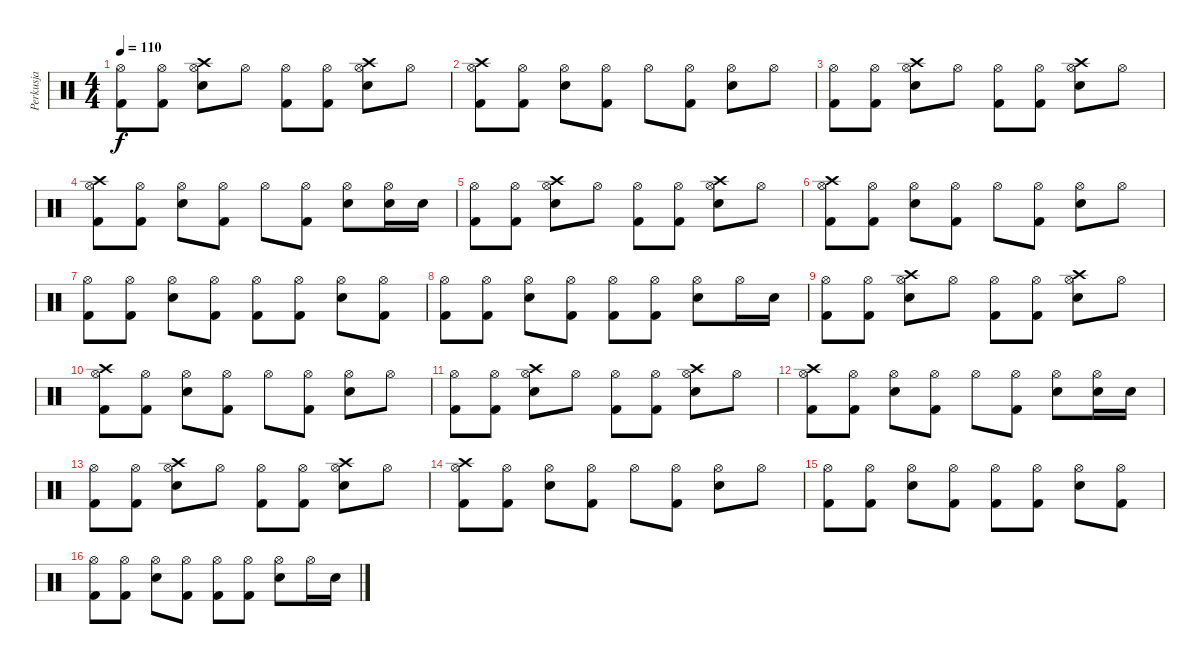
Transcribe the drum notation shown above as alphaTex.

\track ("Perkusja" "Perkusja") {instrument percussion}
\staff {score}
\articulation defaults
\ts (4 4)
\tempo 110
\clef neutral
\ks c
("Hi-Hat (open)" "Kick (hit) 2").8{dy f} ("Hi-Hat (open)" "Kick (hit) 2").8 ("Hi-Hat (open)" "Snare (hit) 2" "Crash high (hit)").8 "Hi-Hat (open)".8 ("Hi-Hat (open)" "Kick (hit) 2").8 ("Hi-Hat (open)" "Kick (hit) 2").8 ("Hi-Hat (open)" "Snare (hit) 2" "Crash high (hit)").8 "Hi-Hat (open)".8 |
("Hi-Hat (open)" "Kick (hit) 2" "Crash high (hit)").8 ("Hi-Hat (open)" "Kick (hit) 2").8 ("Hi-Hat (open)" "Snare (hit) 2").8 ("Hi-Hat (open)" "Kick (hit) 2").8 "Hi-Hat (open)".8 ("Hi-Hat (open)" "Kick (hit) 2").8 ("Hi-Hat (open)" "Snare (hit) 2").8 "Hi-Hat (open)".8 |
("Hi-Hat (open)" "Kick (hit) 2").8 ("Hi-Hat (open)" "Kick (hit) 2").8 ("Hi-Hat (open)" "Snare (hit) 2" "Crash high (hit)").8 "Hi-Hat (open)".8 ("Hi-Hat (open)" "Kick (hit) 2").8 ("Hi-Hat (open)" "Kick (hit) 2").8 ("Hi-Hat (open)" "Snare (hit) 2" "Crash high (hit)").8 "Hi-Hat (open)".8 |
("Hi-Hat (open)" "Kick (hit) 2" "Crash high (hit)").8 ("Hi-Hat (open)" "Kick (hit) 2").8 ("Hi-Hat (open)" "Snare (hit) 2").8 ("Hi-Hat (open)" "Kick (hit) 2").8 "Hi-Hat (open)".8 ("Hi-Hat (open)" "Kick (hit) 2").8 ("Hi-Hat (open)" "Snare (hit) 2").8 ("Hi-Hat (open)" "Snare (hit) 2").16 "Snare (hit) 2".16 |
("Hi-Hat (open)" "Kick (hit) 2").8 ("Hi-Hat (open)" "Kick (hit) 2").8 ("Hi-Hat (open)" "Snare (hit) 2" "Crash high (hit)").8 "Hi-Hat (open)".8 ("Hi-Hat (open)" "Kick (hit) 2").8 ("Hi-Hat (open)" "Kick (hit) 2").8 ("Hi-Hat (open)" "Snare (hit) 2" "Crash high (hit)").8 "Hi-Hat (open)".8 |
("Hi-Hat (open)" "Kick (hit) 2" "Crash high (hit)").8 ("Hi-Hat (open)" "Kick (hit) 2").8 ("Hi-Hat (open)" "Snare (hit) 2").8 ("Hi-Hat (open)" "Kick (hit) 2").8 "Hi-Hat (open)".8 ("Hi-Hat (open)" "Kick (hit) 2").8 ("Hi-Hat (open)" "Snare (hit) 2").8 "Hi-Hat (open)".8 |
("Hi-Hat (open)" "Kick (hit) 2").8 ("Hi-Hat (open)" "Kick (hit) 2").8 ("Hi-Hat (open)" "Snare (hit) 2").8 ("Hi-Hat (open)" "Kick (hit) 2").8 ("Hi-Hat (open)" "Kick (hit) 2").8 ("Hi-Hat (open)" "Kick (hit) 2").8 ("Hi-Hat (open)" "Snare (hit) 2").8 ("Hi-Hat (open)" "Kick (hit) 2").8 |
("Hi-Hat (open)" "Kick (hit) 2").8 ("Hi-Hat (open)" "Kick (hit) 2").8 ("Hi-Hat (open)" "Snare (hit) 2").8 ("Hi-Hat (open)" "Kick (hit) 2").8 ("Hi-Hat (open)" "Kick (hit) 2").8 ("Hi-Hat (open)" "Kick (hit) 2").8 ("Hi-Hat (open)" "Snare (hit) 2").8 "Hi-Hat (open)".16 "Snare (hit) 2".16 |
("Hi-Hat (open)" "Kick (hit) 2").8 ("Hi-Hat (open)" "Kick (hit) 2").8 ("Hi-Hat (open)" "Snare (hit) 2" "Crash high (hit)").8 "Hi-Hat (open)".8 ("Hi-Hat (open)" "Kick (hit) 2").8 ("Hi-Hat (open)" "Kick (hit) 2").8 ("Hi-Hat (open)" "Snare (hit) 2" "Crash high (hit)").8 "Hi-Hat (open)".8 |
("Hi-Hat (open)" "Kick (hit) 2" "Crash high (hit)").8 ("Hi-Hat (open)" "Kick (hit) 2").8 ("Hi-Hat (open)" "Snare (hit) 2").8 ("Hi-Hat (open)" "Kick (hit) 2").8 "Hi-Hat (open)".8 ("Hi-Hat (open)" "Kick (hit) 2").8 ("Hi-Hat (open)" "Snare (hit) 2").8 "Hi-Hat (open)".8 |
("Hi-Hat (open)" "Kick (hit) 2").8 ("Hi-Hat (open)" "Kick (hit) 2").8 ("Hi-Hat (open)" "Snare (hit) 2" "Crash high (hit)").8 "Hi-Hat (open)".8 ("Hi-Hat (open)" "Kick (hit) 2").8 ("Hi-Hat (open)" "Kick (hit) 2").8 ("Hi-Hat (open)" "Snare (hit) 2" "Crash high (hit)").8 "Hi-Hat (open)".8 |
("Hi-Hat (open)" "Kick (hit) 2" "Crash high (hit)").8 ("Hi-Hat (open)" "Kick (hit) 2").8 ("Hi-Hat (open)" "Snare (hit) 2").8 ("Hi-Hat (open)" "Kick (hit) 2").8 "Hi-Hat (open)".8 ("Hi-Hat (open)" "Kick (hit) 2").8 ("Hi-Hat (open)" "Snare (hit) 2").8 ("Hi-Hat (open)" "Snare (hit) 2").16 "Snare (hit) 2".16 |
("Hi-Hat (open)" "Kick (hit) 2").8 ("Hi-Hat (open)" "Kick (hit) 2").8 ("Hi-Hat (open)" "Snare (hit) 2" "Crash high (hit)").8 "Hi-Hat (open)".8 ("Hi-Hat (open)" "Kick (hit) 2").8 ("Hi-Hat (open)" "Kick (hit) 2").8 ("Hi-Hat (open)" "Snare (hit) 2" "Crash high (hit)").8 "Hi-Hat (open)".8 |
("Hi-Hat (open)" "Kick (hit) 2" "Crash high (hit)").8 ("Hi-Hat (open)" "Kick (hit) 2").8 ("Hi-Hat (open)" "Snare (hit) 2").8 ("Hi-Hat (open)" "Kick (hit) 2").8 "Hi-Hat (open)".8 ("Hi-Hat (open)" "Kick (hit) 2").8 ("Hi-Hat (open)" "Snare (hit) 2").8 "Hi-Hat (open)".8 |
("Hi-Hat (open)" "Kick (hit) 2").8 ("Hi-Hat (open)" "Kick (hit) 2").8 ("Hi-Hat (open)" "Snare (hit) 2").8 ("Hi-Hat (open)" "Kick (hit) 2").8 ("Hi-Hat (open)" "Kick (hit) 2").8 ("Hi-Hat (open)" "Kick (hit) 2").8 ("Hi-Hat (open)" "Snare (hit) 2").8 ("Hi-Hat (open)" "Kick (hit) 2").8 |
("Hi-Hat (open)" "Kick (hit) 2").8 ("Hi-Hat (open)" "Kick (hit) 2").8 ("Hi-Hat (open)" "Snare (hit) 2").8 ("Hi-Hat (open)" "Kick (hit) 2").8 ("Hi-Hat (open)" "Kick (hit) 2").8 ("Hi-Hat (open)" "Kick (hit) 2").8 ("Hi-Hat (open)" "Snare (hit) 2").8 "Hi-Hat (open)".16 "Snare (hit) 2".16
